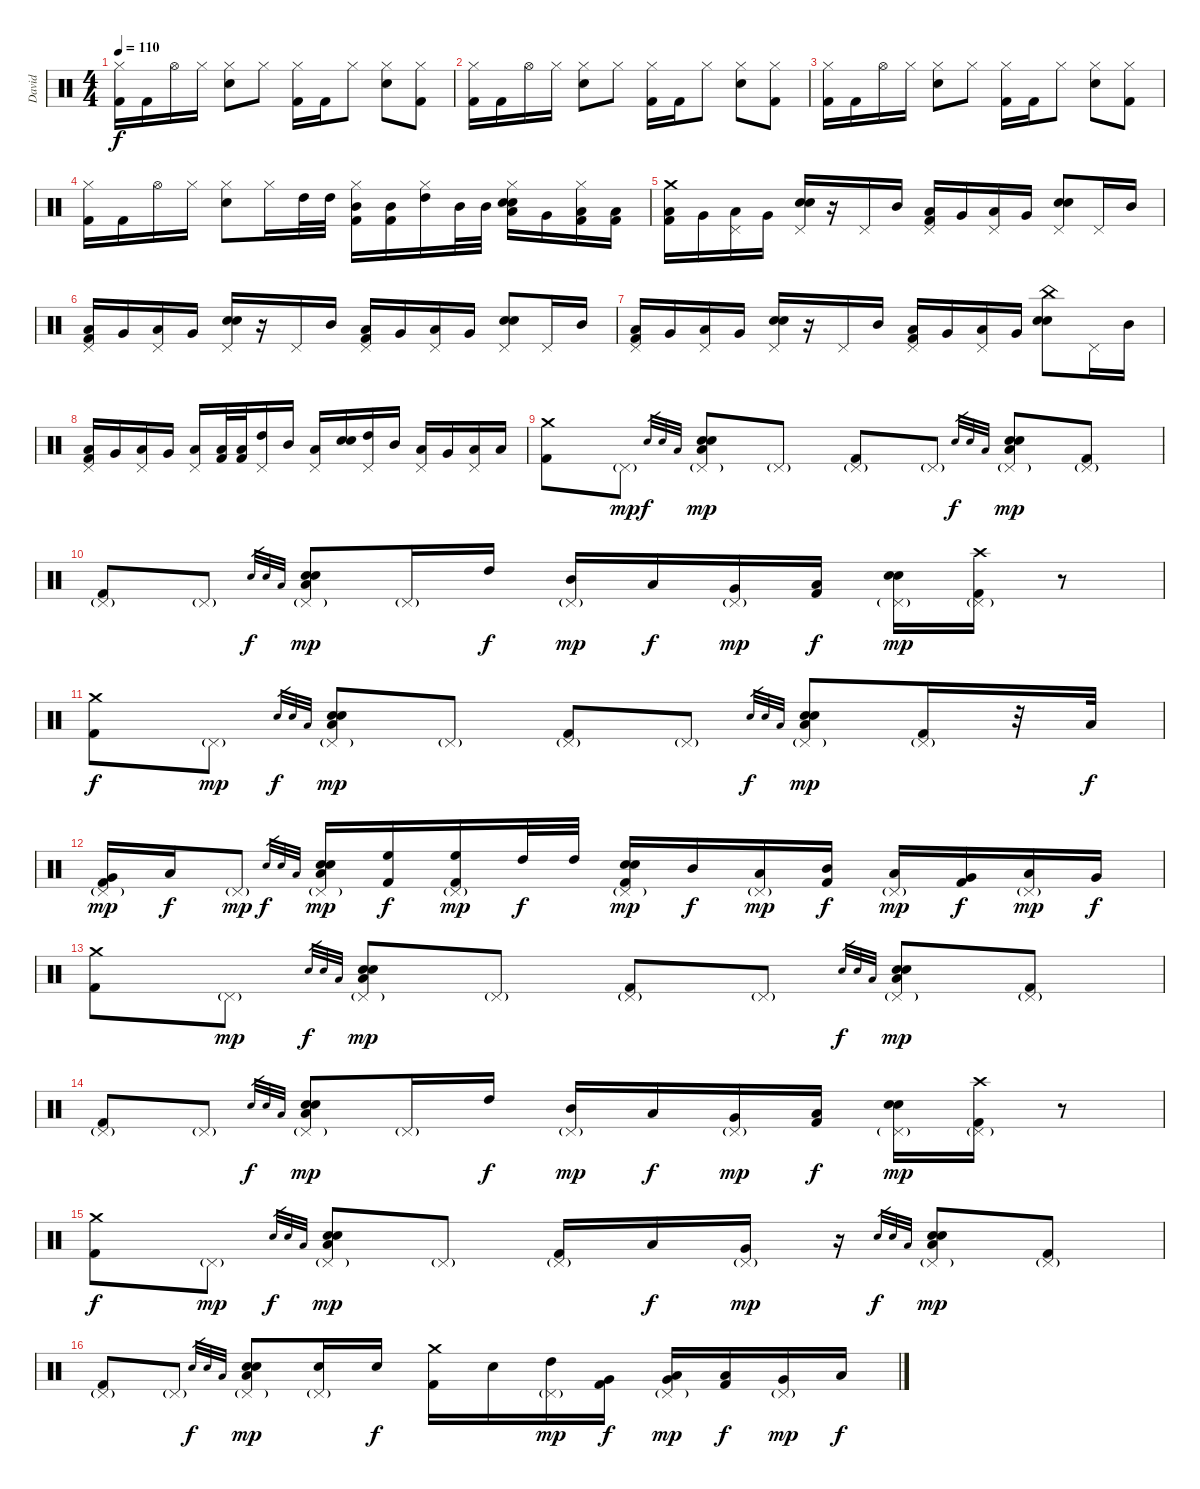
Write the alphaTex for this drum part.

\track ("David" "David") {instrument percussion}
\staff {score}
\articulation defaults
\ts (4 4)
\tempo 110
\clef neutral
\ks c
("Hi-Hat (closed)" "Kick (hit) 2").16{dy f} "Kick (hit) 2".16 "Hi-Hat (open)".16 "Hi-Hat (closed)".16 ("Hi-Hat (closed)" "Snare (hit) 2").8 "Hi-Hat (closed)".8 ("Hi-Hat (closed)" "Kick (hit) 2").16 "Kick (hit) 2".16 "Hi-Hat (closed)".8 ("Hi-Hat (closed)" "Snare (hit) 2").8 ("Hi-Hat (closed)" "Kick (hit) 2").8 |
("Hi-Hat (closed)" "Kick (hit) 2").16 "Kick (hit) 2".16 "Hi-Hat (open)".16 "Hi-Hat (closed)".16 ("Hi-Hat (closed)" "Snare (hit) 2").8 "Hi-Hat (closed)".8 ("Hi-Hat (closed)" "Kick (hit) 2").16 "Kick (hit) 2".16 "Hi-Hat (closed)".8 ("Hi-Hat (closed)" "Snare (hit) 2").8 ("Hi-Hat (closed)" "Kick (hit) 2").8 |
("Hi-Hat (closed)" "Kick (hit) 2").16 "Kick (hit) 2".16 "Hi-Hat (open)".16 "Hi-Hat (closed)".16 ("Hi-Hat (closed)" "Snare (hit) 2").8 "Hi-Hat (closed)".8 ("Hi-Hat (closed)" "Kick (hit) 2").16 "Kick (hit) 2".16 "Hi-Hat (closed)".8 ("Hi-Hat (closed)" "Snare (hit) 2").8 ("Hi-Hat (closed)" "Kick (hit) 2").8 |
("Hi-Hat (closed)" "Kick (hit) 2").16 "Kick (hit) 2".16 "Hi-Hat (open)".16 "Hi-Hat (closed)".16 ("Hi-Hat (closed)" "Snare (hit) 2").8 "Hi-Hat (closed)".16 "High Tom (hit)".32 "High Tom (hit)".32 ("Hi-Hat (closed)" "Mid Tom (hit)" "Kick (hit) 2").16 ("Mid Tom (hit)" "Kick (hit) 2").16 ("Hi-Hat (closed)" "High Tom (hit)").16 "Mid Tom (hit)".32 "Mid Tom (hit)".32 ("Hi-Hat (closed)" "Snare (hit) 2" "Low Tom (hit)" "Snare (hit) 2").16 "Very Low Tom (hit)".16 ("Hi-Hat (closed)" "Low Floor Tom (hit)" "Kick (hit) 2").16 ("Low Floor Tom (hit)" "Kick (hit) 2").16 |
("Crash medium (hit)" "Low Tom (hit)" "Kick (hit) 2").16 "Very Low Tom (hit)".16 ("Pedal Hi-Hat (hit)" "Low Floor Tom (hit)").16 "Very Low Tom (hit)".16 ("Pedal Hi-Hat (hit)" "Snare (hit) 2" "Snare (hit) 2").16 r.16 "Pedal Hi-Hat (hit)".16 "Mid Tom (hit)".16 ("Pedal Hi-Hat (hit)" "Low Tom (hit)" "Kick (hit) 2").16 "Very Low Tom (hit)".16 ("Pedal Hi-Hat (hit)" "Low Floor Tom (hit)").16 "Very Low Tom (hit)".16 ("Pedal Hi-Hat (hit)" "Snare (hit) 2" "Snare (hit) 2").8 "Pedal Hi-Hat (hit)".16 "Mid Tom (hit)".16 |
("Pedal Hi-Hat (hit)" "Low Tom (hit)" "Kick (hit) 2").16 "Very Low Tom (hit)".16 ("Pedal Hi-Hat (hit)" "Low Floor Tom (hit)").16 "Very Low Tom (hit)".16 ("Pedal Hi-Hat (hit)" "Snare (hit) 2" "Snare (hit) 2").16 r.16 "Pedal Hi-Hat (hit)".16 "Mid Tom (hit)".16 ("Pedal Hi-Hat (hit)" "Low Tom (hit)" "Kick (hit) 2").16 "Very Low Tom (hit)".16 ("Pedal Hi-Hat (hit)" "Low Floor Tom (hit)").16 "Very Low Tom (hit)".16 ("Pedal Hi-Hat (hit)" "Snare (hit) 2" "Snare (hit) 2").8 "Pedal Hi-Hat (hit)".16 "Mid Tom (hit)".16 |
("Pedal Hi-Hat (hit)" "Low Tom (hit)" "Kick (hit) 2").16 "Very Low Tom (hit)".16 ("Pedal Hi-Hat (hit)" "Low Floor Tom (hit)").16 "Very Low Tom (hit)".16 ("Pedal Hi-Hat (hit)" "Snare (hit) 2" "Snare (hit) 2").16 r.16 "Pedal Hi-Hat (hit)".16 "Mid Tom (hit)".16 ("Pedal Hi-Hat (hit)" "Low Tom (hit)" "Kick (hit) 2").16 "Very Low Tom (hit)".16 ("Pedal Hi-Hat (hit)" "Low Floor Tom (hit)").16 "Very Low Tom (hit)".16 ("China (hit)" "Snare (hit) 2" "Snare (hit) 2").8 "Pedal Hi-Hat (hit)".16 "Mid Tom (hit)".16 |
("Pedal Hi-Hat (hit)" "Low Tom (hit)" "Kick (hit) 2").16 "Very Low Tom (hit)".16 ("Pedal Hi-Hat (hit)" "Low Floor Tom (hit)").16 "Very Low Tom (hit)".16 ("Pedal Hi-Hat (hit)" "Low Floor Tom (hit)").16 ("Low Tom (hit)" "Kick (hit) 2").32 ("Low Tom (hit)" "Kick (hit) 2").32 ("Pedal Hi-Hat (hit)" "High Tom (hit)").16 "Mid Tom (hit)".16 ("Pedal Hi-Hat (hit)" "Low Tom (hit)").16 ("Snare (hit) 2" "Snare (hit) 2").16 ("Pedal Hi-Hat (hit)" "High Tom (hit)").16 "Mid Tom (hit)".16 ("Pedal Hi-Hat (hit)" "Low Tom (hit)").16 "Very Low Tom (hit)".16 ("Pedal Hi-Hat (hit)" "Low Floor Tom (hit)").16 "Low Floor Tom (hit)".16 |
("Crash medium (hit)" "Kick (hit) 2").8 "Pedal Hi-Hat (hit)"{g}.8{dy mp} "Snare (hit) 2".32{gr dy f} "Snare (hit) 2".32{gr} "Low Floor Tom (hit)".32{gr} ("Pedal Hi-Hat (hit)"{g} "Snare (hit) 2" "Snare (hit) 2" "Low Floor Tom (hit)").8{dy mp} "Pedal Hi-Hat (hit)"{g}.8 ("Pedal Hi-Hat (hit)"{g} "Kick (hit) 2").8 "Pedal Hi-Hat (hit)"{g}.8 "Snare (hit) 2".32{gr dy f} "Snare (hit) 2".32{gr} "Low Floor Tom (hit)".32{gr} ("Pedal Hi-Hat (hit)"{g} "Snare (hit) 2" "Snare (hit) 2" "Low Floor Tom (hit)").8{dy mp} ("Pedal Hi-Hat (hit)"{g} "Kick (hit) 2").8 |
("Pedal Hi-Hat (hit)"{g} "Kick (hit) 2").8 "Pedal Hi-Hat (hit)"{g}.8 "Snare (hit) 2".32{gr dy f} "Snare (hit) 2".32{gr} "Low Floor Tom (hit)".32{gr} ("Pedal Hi-Hat (hit)"{g} "Snare (hit) 2" "Snare (hit) 2" "Low Floor Tom (hit)").8{dy mp} "Pedal Hi-Hat (hit)"{g}.16 "High Tom (hit)".16{dy f} ("Pedal Hi-Hat (hit)"{g} "Mid Tom (hit)").16{dy mp} "Low Tom (hit)".16{dy f} ("Pedal Hi-Hat (hit)"{g} "Very Low Tom (hit)").16{dy mp} ("Low Floor Tom (hit)" "Kick (hit) 2").16{dy f} ("Pedal Hi-Hat (hit)"{g} "Snare (hit) 2" "Snare (hit) 2").16{dy mp} ("Crash high (hit)" "Pedal Hi-Hat (hit)"{g} "Kick (hit) 2").16 r.8 |
("Crash medium (hit)" "Kick (hit) 2").8{dy f} "Pedal Hi-Hat (hit)"{g}.8{dy mp} "Snare (hit) 2".32{gr dy f} "Snare (hit) 2".32{gr} "Low Floor Tom (hit)".32{gr} ("Pedal Hi-Hat (hit)"{g} "Snare (hit) 2" "Snare (hit) 2" "Low Floor Tom (hit)").8{dy mp} "Pedal Hi-Hat (hit)"{g}.8 ("Pedal Hi-Hat (hit)"{g} "Kick (hit) 2").8 "Pedal Hi-Hat (hit)"{g}.8 "Snare (hit) 2".32{gr dy f} "Snare (hit) 2".32{gr} "Low Floor Tom (hit)".32{gr} ("Pedal Hi-Hat (hit)"{g} "Snare (hit) 2" "Snare (hit) 2" "Low Floor Tom (hit)").8{dy mp} ("Pedal Hi-Hat (hit)"{g} "Kick (hit) 2").16 r.32 "Low Tom (hit)".32{dy f} |
("Pedal Hi-Hat (hit)"{g} "Very Low Tom (hit)" "Kick (hit) 2").16{dy mp} "Low Floor Tom (hit)".16{dy f} "Pedal Hi-Hat (hit)"{g}.8{dy mp} "Snare (hit) 2".32{gr dy f} "Snare (hit) 2".32{gr} "Low Floor Tom (hit)".32{gr} ("Pedal Hi-Hat (hit)"{g} "Snare (hit) 2" "Snare (hit) 2" "Low Floor Tom (hit)").16{dy mp} ("High Floor Tom (hit)" "Kick (hit) 2").16{dy f} ("Pedal Hi-Hat (hit)"{g} "High Floor Tom (hit)" "Kick (hit) 2").16{dy mp} "High Tom (hit)".32{dy f} "High Tom (hit)".32 ("Pedal Hi-Hat (hit)"{g} "Snare (hit) 2" "Snare (hit) 2" "Kick (hit) 2").16{dy mp} "Mid Tom (hit)".16{dy f} ("Pedal Hi-Hat (hit)"{g} "Low Tom (hit)").16{dy mp} ("Mid Tom (hit)" "Kick (hit) 2").16{dy f} ("Pedal Hi-Hat (hit)"{g} "Low Tom (hit)").16{dy mp} ("Very Low Tom (hit)" "Kick (hit) 2").16{dy f} ("Pedal Hi-Hat (hit)"{g} "Low Floor Tom (hit)").16{dy mp} "Very Low Tom (hit)".16{dy f} |
("Crash medium (hit)" "Kick (hit) 2").8 "Pedal Hi-Hat (hit)"{g}.8{dy mp} "Snare (hit) 2".32{gr dy f} "Snare (hit) 2".32{gr} "Low Floor Tom (hit)".32{gr} ("Pedal Hi-Hat (hit)"{g} "Snare (hit) 2" "Snare (hit) 2" "Low Floor Tom (hit)").8{dy mp} "Pedal Hi-Hat (hit)"{g}.8 ("Pedal Hi-Hat (hit)"{g} "Kick (hit) 2").8 "Pedal Hi-Hat (hit)"{g}.8 "Snare (hit) 2".32{gr dy f} "Snare (hit) 2".32{gr} "Low Floor Tom (hit)".32{gr} ("Pedal Hi-Hat (hit)"{g} "Snare (hit) 2" "Snare (hit) 2" "Low Floor Tom (hit)").8{dy mp} ("Pedal Hi-Hat (hit)"{g} "Kick (hit) 2").8 |
("Pedal Hi-Hat (hit)"{g} "Kick (hit) 2").8 "Pedal Hi-Hat (hit)"{g}.8 "Snare (hit) 2".32{gr dy f} "Snare (hit) 2".32{gr} "Low Floor Tom (hit)".32{gr} ("Pedal Hi-Hat (hit)"{g} "Snare (hit) 2" "Snare (hit) 2" "Low Floor Tom (hit)").8{dy mp} "Pedal Hi-Hat (hit)"{g}.16 "High Tom (hit)".16{dy f} ("Pedal Hi-Hat (hit)"{g} "Mid Tom (hit)").16{dy mp} "Low Tom (hit)".16{dy f} ("Pedal Hi-Hat (hit)"{g} "Very Low Tom (hit)").16{dy mp} ("Low Floor Tom (hit)" "Kick (hit) 2").16{dy f} ("Pedal Hi-Hat (hit)"{g} "Snare (hit) 2" "Snare (hit) 2").16{dy mp} ("Crash high (hit)" "Pedal Hi-Hat (hit)"{g} "Kick (hit) 2").16 r.8 |
("Crash medium (hit)" "Kick (hit) 2").8{dy f} "Pedal Hi-Hat (hit)"{g}.8{dy mp} "Snare (hit) 2".32{gr dy f} "Snare (hit) 2".32{gr} "Low Floor Tom (hit)".32{gr} ("Pedal Hi-Hat (hit)"{g} "Snare (hit) 2" "Snare (hit) 2" "Low Floor Tom (hit)").8{dy mp} "Pedal Hi-Hat (hit)"{g}.8 ("Pedal Hi-Hat (hit)"{g} "Kick (hit) 2").16 "Low Tom (hit)".16{dy f} ("Pedal Hi-Hat (hit)"{g} "Very Low Tom (hit)").16{dy mp} r.16 "Snare (hit) 2".32{gr dy f} "Snare (hit) 2".32{gr} "Low Floor Tom (hit)".32{gr} ("Pedal Hi-Hat (hit)"{g} "Snare (hit) 2" "Snare (hit) 2" "Low Floor Tom (hit)").8{dy mp} ("Pedal Hi-Hat (hit)"{g} "Kick (hit) 2").8 |
("Pedal Hi-Hat (hit)"{g} "Kick (hit) 2").8 "Pedal Hi-Hat (hit)"{g}.8 "Snare (hit) 2".32{gr dy f} "Snare (hit) 2".32{gr} "Low Floor Tom (hit)".32{gr} ("Pedal Hi-Hat (hit)"{g} "Snare (hit) 2" "Snare (hit) 2" "Low Floor Tom (hit)").8{dy mp} ("Pedal Hi-Hat (hit)"{g} "Snare (hit) 2").16 "Snare (hit) 2".16{dy f} ("Crash medium (hit)" "Kick (hit) 2").16 "Snare (hit) 2".16 ("Pedal Hi-Hat (hit)"{g} "High Tom (hit)").16{dy mp} ("Very Low Tom (hit)" "Kick (hit) 2").16{dy f} ("Pedal Hi-Hat (hit)"{g} "Low Tom (hit)" "Very Low Tom (hit)").16{dy mp} ("Low Floor Tom (hit)" "Kick (hit) 2").16{dy f} ("Pedal Hi-Hat (hit)"{g} "Very Low Tom (hit)").16{dy mp} "Low Floor Tom (hit)".16{dy f}
